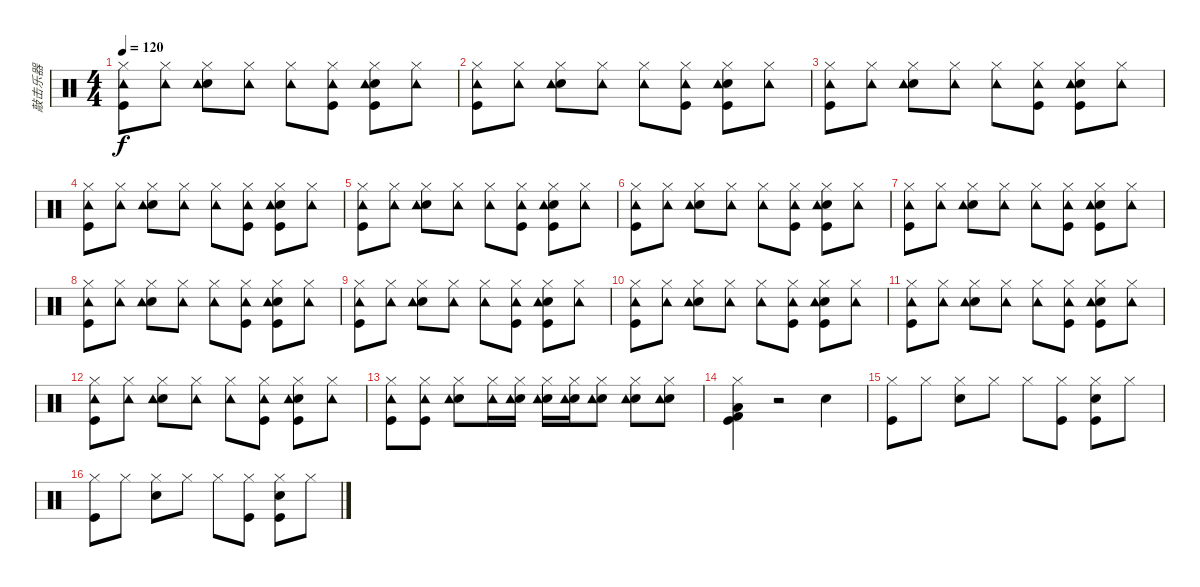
\track ("敲击乐器" "敲击乐器") {instrument percussion}
\staff {score}
\articulation defaults
\ts (4 4)
\tempo 120
\clef neutral
\ks c
("Hi-Hat (closed)" "Kick (hit)" "Tambourine (hit)").8{dy f} ("Hi-Hat (closed)" "Tambourine (hit)").8 ("Hi-Hat (closed)" "Snare (hit) 2" "Tambourine (hit)").8 ("Hi-Hat (closed)" "Tambourine (hit)").8 ("Hi-Hat (closed)" "Tambourine (hit)").8 ("Hi-Hat (closed)" "Kick (hit)" "Tambourine (hit)").8 ("Hi-Hat (closed)" "Snare (hit) 2" "Kick (hit)" "Tambourine (hit)").8 ("Hi-Hat (closed)" "Tambourine (hit)").8 |
("Hi-Hat (closed)" "Kick (hit)" "Tambourine (hit)").8 ("Hi-Hat (closed)" "Tambourine (hit)").8 ("Hi-Hat (closed)" "Snare (hit) 2" "Tambourine (hit)").8 ("Hi-Hat (closed)" "Tambourine (hit)").8 ("Hi-Hat (closed)" "Tambourine (hit)").8 ("Hi-Hat (closed)" "Kick (hit)" "Tambourine (hit)").8 ("Hi-Hat (closed)" "Snare (hit) 2" "Kick (hit)" "Tambourine (hit)").8 ("Hi-Hat (closed)" "Tambourine (hit)").8 |
("Hi-Hat (closed)" "Kick (hit)" "Tambourine (hit)").8 ("Hi-Hat (closed)" "Tambourine (hit)").8 ("Hi-Hat (closed)" "Snare (hit) 2" "Tambourine (hit)").8 ("Hi-Hat (closed)" "Tambourine (hit)").8 ("Hi-Hat (closed)" "Tambourine (hit)").8 ("Hi-Hat (closed)" "Kick (hit)" "Tambourine (hit)").8 ("Hi-Hat (closed)" "Snare (hit) 2" "Kick (hit)" "Tambourine (hit)").8 ("Hi-Hat (closed)" "Tambourine (hit)").8 |
("Hi-Hat (closed)" "Kick (hit)" "Tambourine (hit)").8 ("Hi-Hat (closed)" "Tambourine (hit)").8 ("Hi-Hat (closed)" "Snare (hit) 2" "Tambourine (hit)").8 ("Hi-Hat (closed)" "Tambourine (hit)").8 ("Hi-Hat (closed)" "Tambourine (hit)").8 ("Hi-Hat (closed)" "Kick (hit)" "Tambourine (hit)").8 ("Hi-Hat (closed)" "Snare (hit) 2" "Kick (hit)" "Tambourine (hit)").8 ("Hi-Hat (closed)" "Tambourine (hit)").8 |
("Hi-Hat (closed)" "Kick (hit)" "Tambourine (hit)").8 ("Hi-Hat (closed)" "Tambourine (hit)").8 ("Hi-Hat (closed)" "Snare (hit) 2" "Tambourine (hit)").8 ("Hi-Hat (closed)" "Tambourine (hit)").8 ("Hi-Hat (closed)" "Tambourine (hit)").8 ("Hi-Hat (closed)" "Kick (hit)" "Tambourine (hit)").8 ("Hi-Hat (closed)" "Snare (hit) 2" "Kick (hit)" "Tambourine (hit)").8 ("Hi-Hat (closed)" "Tambourine (hit)").8 |
("Hi-Hat (closed)" "Kick (hit)" "Tambourine (hit)").8 ("Hi-Hat (closed)" "Tambourine (hit)").8 ("Hi-Hat (closed)" "Snare (hit) 2" "Tambourine (hit)").8 ("Hi-Hat (closed)" "Tambourine (hit)").8 ("Hi-Hat (closed)" "Tambourine (hit)").8 ("Hi-Hat (closed)" "Kick (hit)" "Tambourine (hit)").8 ("Hi-Hat (closed)" "Snare (hit) 2" "Kick (hit)" "Tambourine (hit)").8 ("Hi-Hat (closed)" "Tambourine (hit)").8 |
("Hi-Hat (closed)" "Kick (hit)" "Tambourine (hit)").8 ("Hi-Hat (closed)" "Tambourine (hit)").8 ("Hi-Hat (closed)" "Snare (hit) 2" "Tambourine (hit)").8 ("Hi-Hat (closed)" "Tambourine (hit)").8 ("Hi-Hat (closed)" "Tambourine (hit)").8 ("Hi-Hat (closed)" "Kick (hit)" "Tambourine (hit)").8 ("Hi-Hat (closed)" "Snare (hit) 2" "Kick (hit)" "Tambourine (hit)").8 ("Hi-Hat (closed)" "Tambourine (hit)").8 |
("Hi-Hat (closed)" "Kick (hit)" "Tambourine (hit)").8 ("Hi-Hat (closed)" "Tambourine (hit)").8 ("Hi-Hat (closed)" "Snare (hit) 2" "Tambourine (hit)").8 ("Hi-Hat (closed)" "Tambourine (hit)").8 ("Hi-Hat (closed)" "Tambourine (hit)").8 ("Hi-Hat (closed)" "Kick (hit)" "Tambourine (hit)").8 ("Hi-Hat (closed)" "Snare (hit) 2" "Kick (hit)" "Tambourine (hit)").8 ("Hi-Hat (closed)" "Tambourine (hit)").8 |
("Hi-Hat (closed)" "Kick (hit)" "Tambourine (hit)").8 ("Hi-Hat (closed)" "Tambourine (hit)").8 ("Hi-Hat (closed)" "Snare (hit) 2" "Tambourine (hit)").8 ("Hi-Hat (closed)" "Tambourine (hit)").8 ("Hi-Hat (closed)" "Tambourine (hit)").8 ("Hi-Hat (closed)" "Kick (hit)" "Tambourine (hit)").8 ("Hi-Hat (closed)" "Snare (hit) 2" "Kick (hit)" "Tambourine (hit)").8 ("Hi-Hat (closed)" "Tambourine (hit)").8 |
("Hi-Hat (closed)" "Kick (hit)" "Tambourine (hit)").8 ("Hi-Hat (closed)" "Tambourine (hit)").8 ("Hi-Hat (closed)" "Snare (hit) 2" "Tambourine (hit)").8 ("Hi-Hat (closed)" "Tambourine (hit)").8 ("Hi-Hat (closed)" "Tambourine (hit)").8 ("Hi-Hat (closed)" "Kick (hit)" "Tambourine (hit)").8 ("Hi-Hat (closed)" "Snare (hit) 2" "Kick (hit)" "Tambourine (hit)").8 ("Hi-Hat (closed)" "Tambourine (hit)").8 |
("Hi-Hat (closed)" "Kick (hit)" "Tambourine (hit)").8 ("Hi-Hat (closed)" "Tambourine (hit)").8 ("Hi-Hat (closed)" "Snare (hit) 2" "Tambourine (hit)").8 ("Hi-Hat (closed)" "Tambourine (hit)").8 ("Hi-Hat (closed)" "Tambourine (hit)").8 ("Hi-Hat (closed)" "Kick (hit)" "Tambourine (hit)").8 ("Hi-Hat (closed)" "Snare (hit) 2" "Kick (hit)" "Tambourine (hit)").8 ("Hi-Hat (closed)" "Tambourine (hit)").8 |
("Hi-Hat (closed)" "Kick (hit)" "Tambourine (hit)").8 ("Hi-Hat (closed)" "Tambourine (hit)").8 ("Hi-Hat (closed)" "Snare (hit) 2" "Tambourine (hit)").8 ("Hi-Hat (closed)" "Tambourine (hit)").8 ("Hi-Hat (closed)" "Tambourine (hit)").8 ("Hi-Hat (closed)" "Kick (hit)" "Tambourine (hit)").8 ("Hi-Hat (closed)" "Snare (hit) 2" "Kick (hit)" "Tambourine (hit)").8 ("Hi-Hat (closed)" "Tambourine (hit)").8 |
("Hi-Hat (closed)" "Kick (hit)" "Tambourine (hit)").8 ("Hi-Hat (closed)" "Kick (hit)" "Tambourine (hit)").8 ("Hi-Hat (closed)" "Snare (hit) 2" "Tambourine (hit)").8 ("Hi-Hat (closed)" "Tambourine (hit)").16 ("Hi-Hat (closed)" "Snare (hit) 2" "Tambourine (hit)").16 ("Hi-Hat (closed)" "Snare (hit) 2" "Tambourine (hit)").16 ("Hi-Hat (closed)" "Snare (hit) 2" "Tambourine (hit)").16 ("Hi-Hat (closed)" "Snare (hit) 2" "Tambourine (hit)").8 ("Hi-Hat (closed)" "Snare (hit) 2" "Tambourine (hit)").8 ("Hi-Hat (closed)" "Snare (hit) 2" "Tambourine (hit)").8 |
("Hi-Hat (closed)" "Low Tom (hit)" "Kick (hit) 2" "Kick (hit)").4 r.2 "Snare (hit) 2".4 |
("Hi-Hat (closed)" "Kick (hit)").8 "Hi-Hat (closed)".8 ("Hi-Hat (closed)" "Snare (hit) 2").8 "Hi-Hat (closed)".8 "Hi-Hat (closed)".8 ("Hi-Hat (closed)" "Kick (hit)").8 ("Hi-Hat (closed)" "Snare (hit) 2" "Kick (hit)").8 "Hi-Hat (closed)".8 |
("Hi-Hat (closed)" "Kick (hit)").8 "Hi-Hat (closed)".8 ("Hi-Hat (closed)" "Snare (hit) 2").8 "Hi-Hat (closed)".8 "Hi-Hat (closed)".8 ("Hi-Hat (closed)" "Kick (hit)").8 ("Hi-Hat (closed)" "Snare (hit) 2" "Kick (hit)").8 "Hi-Hat (closed)".8
